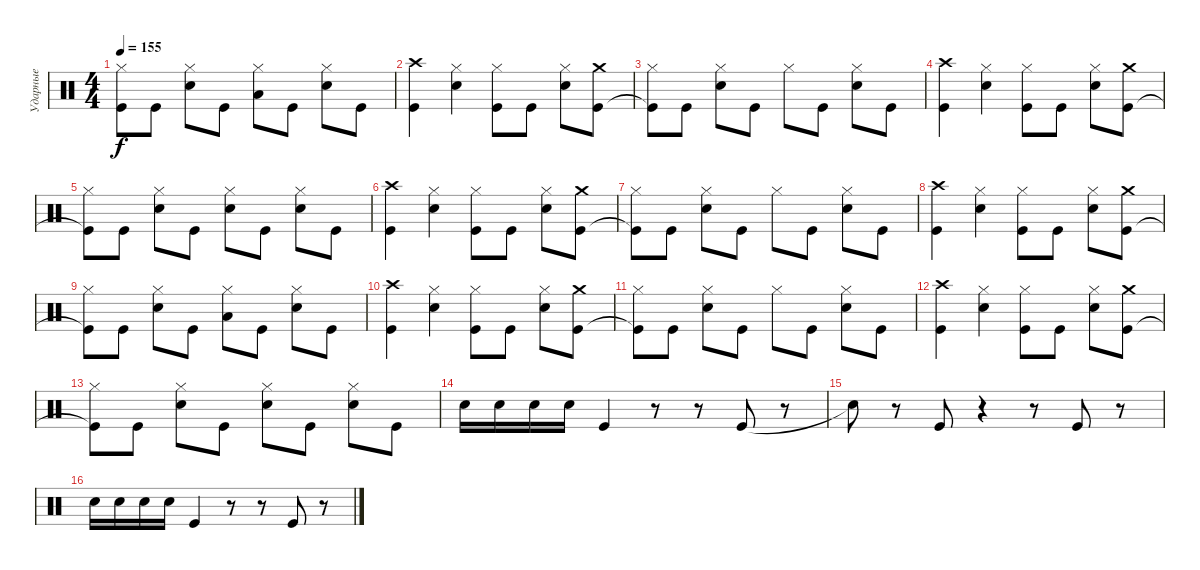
\track ("Ударные" "Ударные") {instrument percussion}
\staff {score}
\articulation defaults
\ts (4 4)
\tempo 155
\clef neutral
\ks c
("Hi-Hat (closed)" "Kick (hit)"{t}).8{dy f} "Kick (hit)".8 ("Hi-Hat (closed)" "Electric Snare (hit)").8 "Kick (hit)".8 ("Hi-Hat (closed)" "Low Tom (hit)").8 "Kick (hit)".8 ("Hi-Hat (closed)" "Electric Snare (hit)").8 "Kick (hit)".8 |
("Crash high (hit)" "Kick (hit)").4 ("Hi-Hat (closed)" "Electric Snare (hit)").4 ("Hi-Hat (closed)" "Kick (hit)").8 "Kick (hit)".8 ("Hi-Hat (closed)" "Electric Snare (hit)").8 ("Crash medium (hit)" "Kick (hit)").8 |
("Hi-Hat (closed)" "Kick (hit)"{t}).8 "Kick (hit)".8 ("Hi-Hat (closed)" "Electric Snare (hit)").8 "Kick (hit)".8 "Hi-Hat (closed)".8 "Kick (hit)".8 ("Hi-Hat (closed)" "Electric Snare (hit)").8 "Kick (hit)".8 |
("Crash high (hit)" "Kick (hit)").4 ("Hi-Hat (closed)" "Electric Snare (hit)").4 ("Hi-Hat (closed)" "Kick (hit)").8 "Kick (hit)".8 ("Hi-Hat (closed)" "Electric Snare (hit)").8 ("Crash medium (hit)" "Kick (hit)").8 |
("Hi-Hat (closed)" "Kick (hit)"{t}).8 "Kick (hit)".8 ("Hi-Hat (closed)" "Electric Snare (hit)").8 "Kick (hit)".8 ("Hi-Hat (closed)" "Electric Snare (hit)").8 "Kick (hit)".8 ("Hi-Hat (closed)" "Electric Snare (hit)").8 "Kick (hit)".8 |
("Crash high (hit)" "Kick (hit)").4 ("Hi-Hat (closed)" "Electric Snare (hit)").4 ("Hi-Hat (closed)" "Kick (hit)").8 "Kick (hit)".8 ("Hi-Hat (closed)" "Electric Snare (hit)").8 ("Crash medium (hit)" "Kick (hit)").8 |
("Hi-Hat (closed)" "Kick (hit)"{t}).8 "Kick (hit)".8 ("Hi-Hat (closed)" "Electric Snare (hit)").8 "Kick (hit)".8 "Hi-Hat (closed)".8 "Kick (hit)".8 ("Hi-Hat (closed)" "Electric Snare (hit)").8 "Kick (hit)".8 |
("Crash high (hit)" "Kick (hit)").4 ("Hi-Hat (closed)" "Electric Snare (hit)").4 ("Hi-Hat (closed)" "Kick (hit)").8 "Kick (hit)".8 ("Hi-Hat (closed)" "Electric Snare (hit)").8 ("Crash medium (hit)" "Kick (hit)").8 |
("Hi-Hat (closed)" "Kick (hit)"{t}).8 "Kick (hit)".8 ("Hi-Hat (closed)" "Electric Snare (hit)").8 "Kick (hit)".8 ("Hi-Hat (closed)" "Low Tom (hit)").8 "Kick (hit)".8 ("Hi-Hat (closed)" "Electric Snare (hit)").8 "Kick (hit)".8 |
("Crash high (hit)" "Kick (hit)").4 ("Hi-Hat (closed)" "Electric Snare (hit)").4 ("Hi-Hat (closed)" "Kick (hit)").8 "Kick (hit)".8 ("Hi-Hat (closed)" "Electric Snare (hit)").8 ("Crash medium (hit)" "Kick (hit)").8 |
("Hi-Hat (closed)" "Kick (hit)"{t}).8 "Kick (hit)".8 ("Hi-Hat (closed)" "Electric Snare (hit)").8 "Kick (hit)".8 "Hi-Hat (closed)".8 "Kick (hit)".8 ("Hi-Hat (closed)" "Electric Snare (hit)").8 "Kick (hit)".8 |
("Crash high (hit)" "Kick (hit)").4 ("Hi-Hat (closed)" "Electric Snare (hit)").4 ("Hi-Hat (closed)" "Kick (hit)").8 "Kick (hit)".8 ("Hi-Hat (closed)" "Electric Snare (hit)").8 ("Crash medium (hit)" "Kick (hit)").8 |
("Hi-Hat (closed)" "Kick (hit)"{t}).8 "Kick (hit)".8 ("Hi-Hat (closed)" "Electric Snare (hit)").8 "Kick (hit)".8 ("Hi-Hat (closed)" "Electric Snare (hit)").8 "Kick (hit)".8 ("Hi-Hat (closed)" "Electric Snare (hit)").8 "Kick (hit)".8 |
"Electric Snare (hit)".16 "Electric Snare (hit)".16 "Electric Snare (hit)".16 "Electric Snare (hit)".16 "Kick (hit)".4 r.8 r.8 "Kick (hit)".8 r.8 |
"Snare (hit)"{t}.8 r.8 "Kick (hit)".8 r.4 r.8 "Kick (hit)".8 r.8 |
"Electric Snare (hit)".16 "Electric Snare (hit)".16 "Electric Snare (hit)".16 "Electric Snare (hit)".16 "Kick (hit)".4 r.8 r.8 "Kick (hit)".8 r.8
